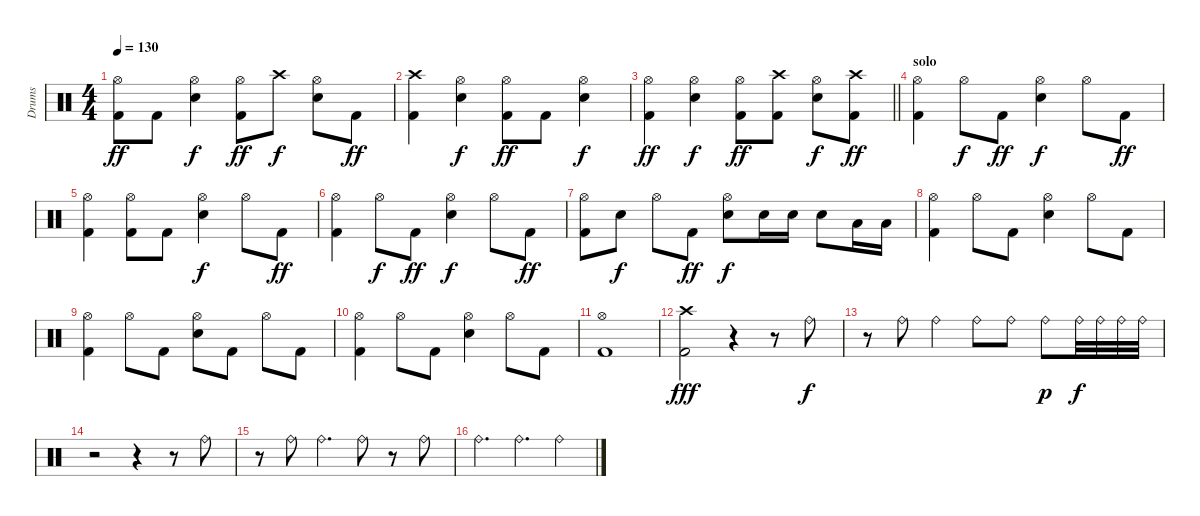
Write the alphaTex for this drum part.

\track ("Drums" "Drums") {instrument percussion}
\staff {score}
\articulation defaults
\ts (4 4)
\tempo 130
\clef neutral
\ks c
("Hi-Hat (open)" "Kick (hit) 2").8{dy ff} "Kick (hit) 2".8 ("Hi-Hat (open)" "Snare (hit) 2").4{dy f} ("Hi-Hat (open)" "Kick (hit) 2").8{dy ff} "Crash high (hit)".8{dy f} ("Hi-Hat (open)" "Snare (hit) 2").8 "Kick (hit) 2".8{dy ff} |
("Crash high (hit)" "Kick (hit) 2").4 ("Hi-Hat (open)" "Snare (hit) 2").4{dy f} ("Hi-Hat (open)" "Kick (hit) 2").8{dy ff} "Kick (hit) 2".8 ("Hi-Hat (open)" "Snare (hit) 2").4{dy f} |
\barLineRight lightlight
("Hi-Hat (open)" "Kick (hit) 2").4{dy ff} ("Hi-Hat (open)" "Snare (hit) 2").4{dy f} ("Hi-Hat (open)" "Kick (hit) 2").8{dy ff} ("Crash high (hit)" "Kick (hit) 2").8 ("Hi-Hat (open)" "Snare (hit) 2").8{dy f} ("Crash high (hit)" "Kick (hit) 2").8{dy ff} |
\section ("" "solo")
("Hi-Hat (open)" "Kick (hit) 2").4 "Hi-Hat (open)".8{dy f} "Kick (hit) 2".8{dy ff} ("Hi-Hat (open)" "Snare (hit) 2").4{dy f} "Hi-Hat (open)".8 "Kick (hit) 2".8{dy ff} |
("Hi-Hat (open)" "Kick (hit) 2").4 ("Hi-Hat (open)" "Kick (hit) 2").8 "Kick (hit) 2".8 ("Hi-Hat (open)" "Snare (hit) 2").4{dy f} "Hi-Hat (open)".8 "Kick (hit) 2".8{dy ff} |
("Hi-Hat (open)" "Kick (hit) 2").4 "Hi-Hat (open)".8{dy f} "Kick (hit) 2".8{dy ff} ("Hi-Hat (open)" "Snare (hit) 2").4{dy f} "Hi-Hat (open)".8 "Kick (hit) 2".8{dy ff} |
("Hi-Hat (open)" "Kick (hit) 2").8 "Snare (hit) 2".8{dy f} "Hi-Hat (open)".8 "Kick (hit) 2".8{dy ff} ("Hi-Hat (open)" "Snare (hit) 2").8{dy f} "Snare (hit) 2".16 "Snare (hit) 2".16 "Snare (hit) 2".8 "Low Tom (hit)".16 "Low Tom (hit)".16 |
("Hi-Hat (open)" "Kick (hit) 2").4 "Hi-Hat (open)".8 "Kick (hit) 2".8 ("Hi-Hat (open)" "Snare (hit) 2").4 "Hi-Hat (open)".8 "Kick (hit) 2".8 |
("Hi-Hat (open)" "Kick (hit) 2").4 "Hi-Hat (open)".8 "Kick (hit) 2".8 ("Hi-Hat (open)" "Snare (hit) 2").8 "Kick (hit) 2".8 "Hi-Hat (open)".8 "Kick (hit) 2".8 |
("Hi-Hat (open)" "Kick (hit) 2").4 "Hi-Hat (open)".8 "Kick (hit) 2".8 ("Hi-Hat (open)" "Snare (hit) 2").4 "Hi-Hat (open)".8 "Kick (hit) 2".8 |
("Hi-Hat (open)" "Kick (hit) 2").1 |
("Crash high (hit)" "Kick (hit) 2").2{dy fff} r.4 r.8 "Ride (bell)".8{dy f} |
r.8 "Ride (bell)".8 "Ride (bell)".4 "Ride (bell)".8 "Ride (bell)".8 "Ride (bell)".8{dy p} "Ride (bell)".32{dy f} "Ride (bell)".32 "Ride (bell)".32 "Ride (bell)".32 |
r.2 r.4 r.8 "Ride (bell)".8 |
r.8 "Ride (bell)".8 "Ride (bell)".4{d} "Ride (bell)".8 r.8 "Ride (bell)".8 |
"Ride (bell)".4{d} "Ride (bell)".4{d} "Ride (bell)".4
